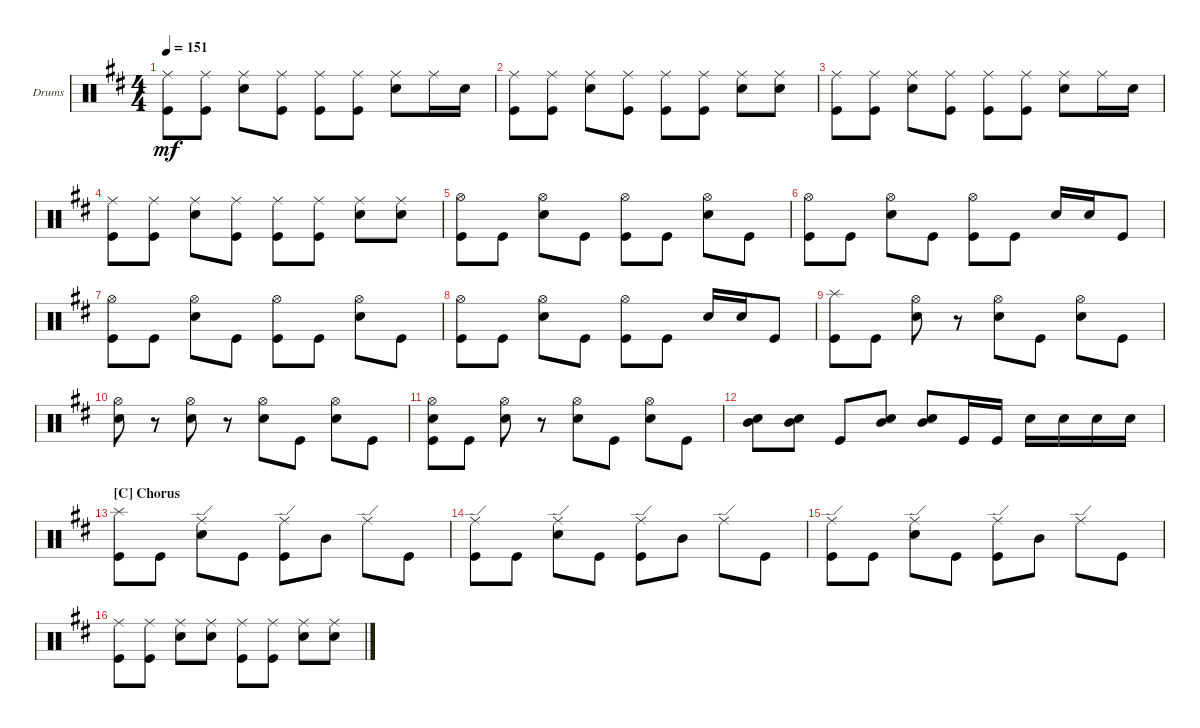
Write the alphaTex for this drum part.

\defaultSystemsLayout 4
\bracketExtendMode groupsimilarinstruments
\firstSystemTrackNameOrientation horizontal
\otherSystemsTrackNameOrientation horizontal
\track ("Drumkit" "Drums") {instrument percussion}
\staff {score}
\articulation defaults
\ts (4 4)
\tempo 151
\clef neutral
\ks bminor
("Kick (hit)" "Ride (middle)").8{dy mf} ("Kick (hit)" "Ride (middle)").8 ("Snare (hit) 2" "Ride (middle)").8 ("Kick (hit)" "Ride (middle)").8 ("Kick (hit)" "Ride (middle)").8 ("Kick (hit)" "Ride (middle)").8 ("Snare (hit) 2" "Ride (middle)").8 "Ride (middle)".16 "Snare (hit) 2".16 |
("Kick (hit)" "Ride (middle)").8 ("Kick (hit)" "Ride (middle)").8 ("Ride (middle)" "Snare (hit) 2").8 ("Ride (middle)" "Kick (hit)").8 ("Ride (middle)" "Kick (hit)").8 ("Ride (middle)" "Kick (hit)").8 ("Ride (middle)" "Snare (hit) 2").8 ("Ride (middle)" "Snare (hit) 2").8 |
("Kick (hit)" "Ride (middle)").8 ("Kick (hit)" "Ride (middle)").8 ("Snare (hit) 2" "Ride (middle)").8 ("Kick (hit)" "Ride (middle)").8 ("Kick (hit)" "Ride (middle)").8 ("Kick (hit)" "Ride (middle)").8 ("Snare (hit) 2" "Ride (middle)").8 "Ride (middle)".16 "Snare (hit) 2".16 |
("Kick (hit)" "Ride (middle)").8 ("Kick (hit)" "Ride (middle)").8 ("Ride (middle)" "Snare (hit) 2").8 ("Ride (middle)" "Kick (hit)").8 ("Ride (middle)" "Kick (hit)").8 ("Ride (middle)" "Kick (hit)").8 ("Ride (middle)" "Snare (hit) 2").8 ("Ride (middle)" "Snare (hit) 2").8 |
("Kick (hit)" "Hi-Hat (open)").8 "Kick (hit)".8 ("Hi-Hat (open)" "Snare (hit) 2").8 "Kick (hit)".8 ("Kick (hit)" "Hi-Hat (open)").8 "Kick (hit)".8 ("Hi-Hat (open)" "Snare (hit) 2").8 "Kick (hit)".8 |
("Kick (hit)" "Hi-Hat (open)").8 "Kick (hit)".8 ("Hi-Hat (open)" "Snare (hit) 2").8 "Kick (hit)".8 ("Kick (hit)" "Hi-Hat (open)").8 "Kick (hit)".8 "Snare (hit) 2".16 "Snare (hit) 2".16 "Kick (hit)".8 |
("Kick (hit)" "Hi-Hat (open)").8 "Kick (hit)".8 ("Hi-Hat (open)" "Snare (hit) 2").8 "Kick (hit)".8 ("Kick (hit)" "Hi-Hat (open)").8 "Kick (hit)".8 ("Hi-Hat (open)" "Snare (hit) 2").8 "Kick (hit)".8 |
("Kick (hit)" "Hi-Hat (open)").8 "Kick (hit)".8 ("Hi-Hat (open)" "Snare (hit) 2").8 "Kick (hit)".8 ("Kick (hit)" "Hi-Hat (open)").8 "Kick (hit)".8 "Snare (hit) 2".16 "Snare (hit) 2".16 "Kick (hit)".8 |
("Kick (hit)" "Splash (hit)").8 "Kick (hit)".8 ("Snare (hit) 2" "Hi-Hat (open)").8 r.8 ("Snare (hit) 2" "Hi-Hat (open)").8 "Kick (hit)".8 ("Snare (hit) 2" "Hi-Hat (open)").8 "Kick (hit)".8 |
("Snare (hit) 2" "Hi-Hat (open)").8 r.8 ("Snare (hit) 2" "Hi-Hat (open)").8 r.8 ("Snare (hit) 2" "Hi-Hat (open)").8 "Kick (hit)".8 ("Snare (hit) 2" "Hi-Hat (open)").8 "Kick (hit)".8 |
("Snare (hit) 2" "Kick (hit)" "Hi-Hat (open)").8 "Kick (hit)".8 ("Snare (hit) 2" "Hi-Hat (open)").8 r.8 ("Snare (hit) 2" "Hi-Hat (open)").8 "Kick (hit)".8 ("Snare (hit) 2" "Hi-Hat (open)").8 "Kick (hit)".8 |
("Snare (hit) 2" "Mid Tom (hit)").8 ("Snare (hit) 2" "Mid Tom (hit)").8 "Kick (hit)".8 ("Mid Tom (hit)" "Snare (hit) 2").8 ("Mid Tom (hit)" "Snare (hit) 2").8 "Kick (hit)".16 "Kick (hit)".16 "Snare (hit) 2".16 "Snare (hit) 2".16 "Snare (hit) 2".16 "Snare (hit) 2".16 |
\section ("C" "Chorus")
("Kick (hit)" "Splash (hit)").8 "Kick (hit)".8 ("Snare (hit) 2" "Ride (edge)").8 "Kick (hit)".8 ("Kick (hit)" "Ride (edge)").8 "Mid Tom (hit)".8 "Ride (edge)".8 "Kick (hit)".8 |
("Kick (hit)" "Ride (edge)").8 "Kick (hit)".8 ("Snare (hit) 2" "Ride (edge)").8 "Kick (hit)".8 ("Kick (hit)" "Ride (edge)").8 "Mid Tom (hit)".8 "Ride (edge)".8 "Kick (hit)".8 |
("Kick (hit)" "Ride (edge)").8 "Kick (hit)".8 ("Snare (hit) 2" "Ride (edge)").8 "Kick (hit)".8 ("Kick (hit)" "Ride (edge)").8 "Mid Tom (hit)".8 "Ride (edge)".8 "Kick (hit)".8 |
("Ride (middle)" "Kick (hit)").8 ("Ride (middle)" "Kick (hit)").8 ("Ride (middle)" "Snare (hit) 2").8 ("Ride (middle)" "Snare (hit) 2").8 ("Ride (middle)" "Kick (hit)").8 ("Ride (middle)" "Kick (hit)").8 ("Ride (middle)" "Snare (hit) 2").8 ("Ride (middle)" "Snare (hit) 2").8
